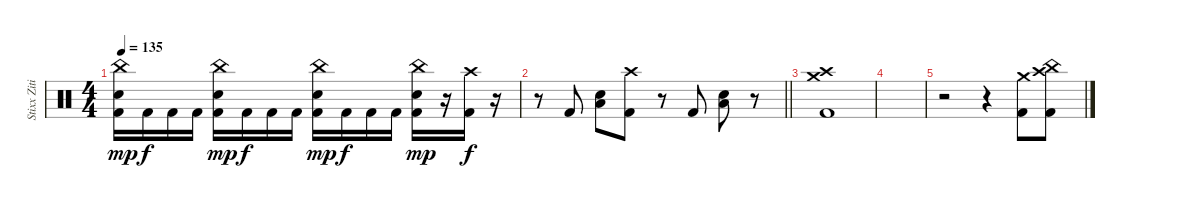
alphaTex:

\track ("Stixx Zitinya Drums" "Stixx Ziti") {instrument percussion}
\staff {score}
\articulation defaults
\ts (4 4)
\tempo 135
\clef neutral
\ks c
("China (hit)" "Snare (hit) 2" "Kick (hit) 2").16{dy mp} "Kick (hit) 2".16{dy f} "Kick (hit) 2".16 "Kick (hit) 2".16 ("China (hit)" "Snare (hit) 2" "Kick (hit) 2").16{dy mp} "Kick (hit) 2".16{dy f} "Kick (hit) 2".16 "Kick (hit) 2".16 ("China (hit)" "Snare (hit) 2" "Kick (hit) 2").16{dy mp} "Kick (hit) 2".16{dy f} "Kick (hit) 2".16 "Kick (hit) 2".16 ("China (hit)" "Snare (hit) 2" "Kick (hit) 2").16{dy mp} r.16 ("Crash high (hit)" "Kick (hit) 2").16{dy f} r.16 |
\barLineRight lightlight
r.8 "Kick (hit) 2".8 ("Low Floor Tom (hit)" "Snare (hit) 2").8 ("Crash high (hit)" "Kick (hit) 2").8 r.8 "Kick (hit) 2".8 ("Low Floor Tom (hit)" "Snare (hit) 2").8 r.8 |
("Crash high (hit)" "Crash medium (hit)" "Kick (hit) 2").1 |
|
r.2 r.4 ("Crash medium (hit)" "Kick (hit) 2").8 ("Crash high (hit)" "China (hit)" "Kick (hit) 2").8{volume 0}
